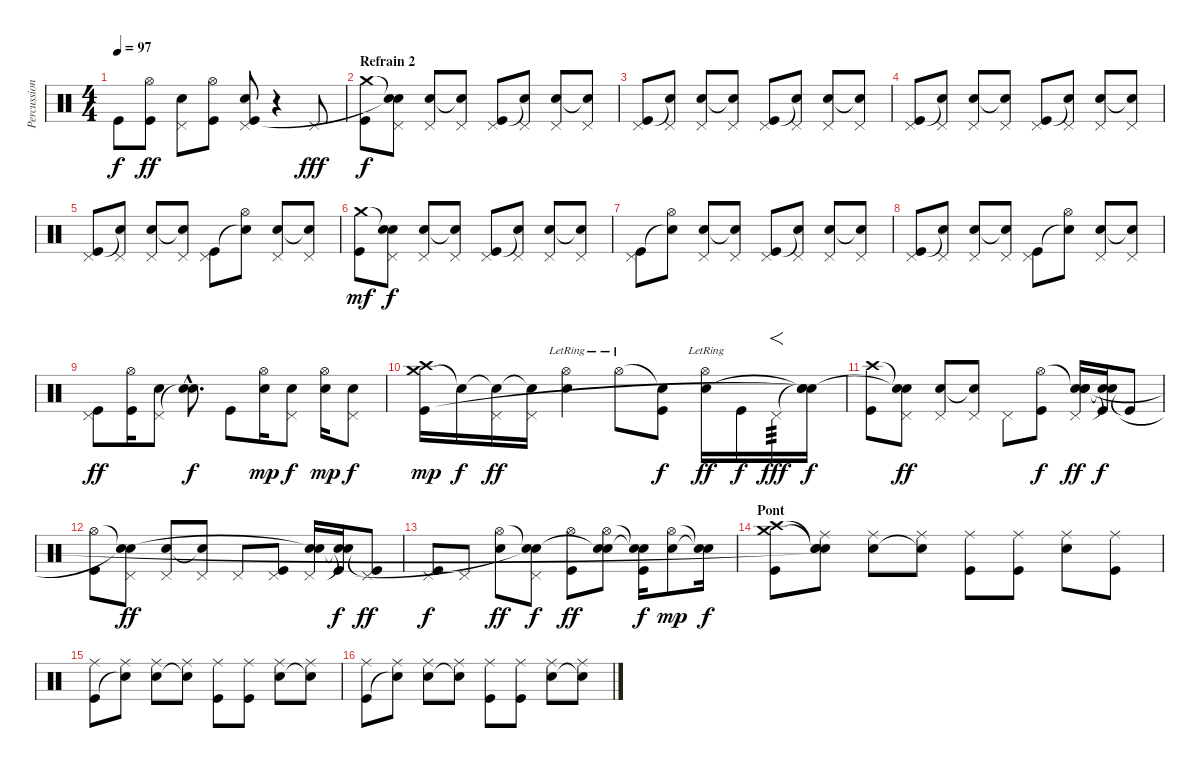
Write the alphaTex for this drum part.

\track ("Percussions" "Percussion") {instrument percussion}
\staff {score}
\articulation defaults
\ts (4 4)
\tempo 97
\clef neutral
\ks c "Kick (hit)".8{dy f}
("Hi-Hat (open)" "Kick (hit)").8{dy ff} ("Pedal Hi-Hat (hit)" "Snare (hit) 2").8 ("Hi-Hat (open)" "Kick (hit)").8 ("Pedal Hi-Hat (hit)" "Snare (hit) 2" "Kick (hit)").8 r.4 "Pedal Hi-Hat (hit)".8{dy fff} |
\section ("" "Refrain 2")
("Crash medium (hit)" "Kick (hit)").8{dy f} ("Snare (hit)"{t} "Pedal Hi-Hat (hit)" "Snare (hit)"{t}).8 ("Pedal Hi-Hat (hit)" "Snare (hit) 2").8 ("Pedal Hi-Hat (hit)" "Snare (hit)"{t}).8 ("Pedal Hi-Hat (hit)" "Kick (hit)").8 ("Pedal Hi-Hat (hit)" "Snare (hit)"{t}).8 ("Pedal Hi-Hat (hit)" "Snare (hit) 2").8 ("Pedal Hi-Hat (hit)" "Snare (hit)"{t}).8 |
("Pedal Hi-Hat (hit)" "Kick (hit)").8 ("Pedal Hi-Hat (hit)" "Snare (hit)"{t}).8 ("Pedal Hi-Hat (hit)" "Snare (hit) 2").8 ("Pedal Hi-Hat (hit)" "Snare (hit)"{t}).8 ("Pedal Hi-Hat (hit)" "Kick (hit)").8 ("Pedal Hi-Hat (hit)" "Snare (hit)"{t}).8 ("Pedal Hi-Hat (hit)" "Snare (hit) 2").8 ("Pedal Hi-Hat (hit)" "Snare (hit)"{t}).8 |
("Pedal Hi-Hat (hit)" "Kick (hit)").8 ("Pedal Hi-Hat (hit)" "Snare (hit)"{t}).8 ("Pedal Hi-Hat (hit)" "Snare (hit) 2").8 ("Pedal Hi-Hat (hit)" "Snare (hit)"{t}).8 ("Pedal Hi-Hat (hit)" "Kick (hit)").8 ("Pedal Hi-Hat (hit)" "Snare (hit)"{t}).8 ("Pedal Hi-Hat (hit)" "Snare (hit) 2").8 ("Pedal Hi-Hat (hit)" "Snare (hit)"{t}).8 |
("Pedal Hi-Hat (hit)" "Kick (hit)").8 ("Pedal Hi-Hat (hit)" "Snare (hit)"{t}).8 ("Pedal Hi-Hat (hit)" "Snare (hit) 2").8 ("Pedal Hi-Hat (hit)" "Snare (hit)"{t}).8 ("Pedal Hi-Hat (hit)" "Kick (hit)").8 ("Hi-Hat (open)" "Snare (hit)"{t}).8 ("Pedal Hi-Hat (hit)" "Snare (hit) 2").8 ("Pedal Hi-Hat (hit)" "Snare (hit)"{t}).8 |
("Crash medium (hit)" "Kick (hit)").8{dy mf} ("Snare (hit)"{t} "Pedal Hi-Hat (hit)" "Snare (hit)").8{dy f} ("Pedal Hi-Hat (hit)" "Snare (hit) 2").8 ("Pedal Hi-Hat (hit)" "Snare (hit)"{t}).8 ("Pedal Hi-Hat (hit)" "Kick (hit)").8 ("Pedal Hi-Hat (hit)" "Snare (hit)"{t}).8 ("Pedal Hi-Hat (hit)" "Snare (hit) 2").8 ("Pedal Hi-Hat (hit)" "Snare (hit)"{t}).8 |
("Pedal Hi-Hat (hit)" "Kick (hit)").8 ("Hi-Hat (open)" "Snare (hit)"{t}).8 ("Pedal Hi-Hat (hit)" "Snare (hit) 2").8 ("Pedal Hi-Hat (hit)" "Snare (hit)"{t}).8 ("Pedal Hi-Hat (hit)" "Kick (hit)").8 ("Pedal Hi-Hat (hit)" "Snare (hit)"{t}).8 ("Pedal Hi-Hat (hit)" "Snare (hit) 2").8 ("Pedal Hi-Hat (hit)" "Snare (hit)"{t}).8 |
("Pedal Hi-Hat (hit)" "Kick (hit)").8 ("Pedal Hi-Hat (hit)" "Snare (hit)"{t}).8 ("Pedal Hi-Hat (hit)" "Snare (hit) 2").8 ("Pedal Hi-Hat (hit)" "Snare (hit)"{t}).8 ("Pedal Hi-Hat (hit)" "Kick (hit)").8 ("Hi-Hat (open)" "Snare (hit)"{t}).8 ("Pedal Hi-Hat (hit)" "Snare (hit) 2").8 ("Pedal Hi-Hat (hit)" "Snare (hit)"{t}).8 |
("Pedal Hi-Hat (hit)" "Kick (hit)").8{dy ff} ("Hi-Hat (open)" "Kick (hit)").16 ("Pedal Hi-Hat (hit)" "Snare (hit) 2").8 ("Snare (hit)"{hac t} "Snare (hit) 2"{hac}).8{d dy f} "Kick (hit)".8 ("Hi-Hat (open)" "Snare (hit) 2").16{dy mp} ("Pedal Hi-Hat (hit)" "Snare (hit) 2").8{dy f} ("Hi-Hat (open)" "Snare (hit) 2").16{dy mp} ("Pedal Hi-Hat (hit)" "Snare (hit) 2").8{dy f} |
("Crash medium (hit)" "Crash high (hit)" "Kick (hit)").16{dy mp} "Snare (hit)"{t}.16{dy f} ("Snare (hit)"{t} "Pedal Hi-Hat (hit)").16{dy ff} ("Snare (hit)"{t} "Pedal Hi-Hat (hit)").16 ("Hi-Hat (open)"{lr} "Snare (hit) 2").4 "Hi-Hat (open)"{lr}.8 ("Snare (hit)"{t} "Kick (hit)").8{dy f} ("Hi-Hat (open)"{lr} "Snare (hit) 2").16{dy ff} "Kick (hit)".16{dy f} "Pedal Hi-Hat (hit)".16{f tp 3 dy fff} ("Snare (hit)"{t} "Snare (hit)"{t} "Snare (hit)"{t}).16{dy f} |
("Crash high (hit)" "Kick (hit)").8 ("Snare (hit)"{t} "Pedal Hi-Hat (hit)" "Snare (hit)"{t}).8{dy ff} ("Pedal Hi-Hat (hit)" "Snare (hit) 2").8 ("Pedal Hi-Hat (hit)" "Snare (hit)"{t}).8 "Pedal Hi-Hat (hit)".8 ("Hi-Hat (open)" "Kick (hit)").8{dy f} ("Snare (hit)"{t} "Pedal Hi-Hat (hit)" "Snare (hit) 2" "Snare (hit)").16{dy ff} ("Snare (hit)"{t} "Snare (hit)"{t} "Kick (hit)").16{dy f} "Kick (hit)"{t}.8 |
("Hi-Hat (open)" "Kick (hit)").8 ("Snare (hit)"{t} "Pedal Hi-Hat (hit)" "Snare (hit)"{t}).8{dy ff} ("Pedal Hi-Hat (hit)" "Snare (hit) 2").8 ("Pedal Hi-Hat (hit)" "Snare (hit)"{t}).8 "Pedal Hi-Hat (hit)".8 ("Pedal Hi-Hat (hit)" "Kick (hit)").8 ("Pedal Hi-Hat (hit)" "Snare (hit) 2" "Snare (hit)"{t}).16 ("Snare (hit)"{t} "Snare (hit)"{t} "Kick (hit)").16{dy f} ("Pedal Hi-Hat (hit)" "Kick (hit)"{t}).8{dy ff} |
("Pedal Hi-Hat (hit)" "Kick (hit)").8{dy f} "Pedal Hi-Hat (hit)".8 ("Hi-Hat (open)" "Snare (hit) 2").8{dy ff} ("Snare (hit)"{t} "Pedal Hi-Hat (hit)" "Snare (hit)"{t}).8{dy f} ("Hi-Hat (open)" "Kick (hit)").8{dy ff} ("Hi-Hat (open)" "Snare (hit) 2" "Snare (hit)"{t}).8 ("Snare (hit)"{t} "Snare (hit) 2"{t} "Kick (hit)").16{dy f} ("Hi-Hat (open)" "Snare (hit) 2").8{dy mp} ("Snare (hit)"{t} "Snare (hit)"{t}).16{dy f} |
\section ("" "Pont")
("Crash medium (hit)" "Crash high (hit)" "Kick (hit)").8 ("Snare (hit)"{t} "Snare (hit)"{t} "Ride (middle)" "Snare (hit)"{t}).8 ("Ride (middle)" "Snare (hit) 2").8 ("Ride (middle)" "Snare (hit)"{t}).8 ("Ride (middle)" "Kick (hit)").8 ("Ride (middle)" "Kick (hit)").8 ("Ride (middle)" "Snare (hit) 2").8 ("Ride (middle)" "Kick (hit)").8 |
("Ride (middle)" "Kick (hit)").8 ("Ride (middle)" "Snare (hit)"{t}).8 ("Ride (middle)" "Snare (hit) 2").8 ("Ride (middle)" "Snare (hit)"{t}).8 ("Ride (middle)" "Kick (hit)").8 ("Ride (middle)" "Kick (hit)").8 ("Ride (middle)" "Snare (hit) 2").8 ("Ride (middle)" "Snare (hit)"{t}).8 |
("Ride (middle)" "Kick (hit)").8 ("Ride (middle)" "Snare (hit)"{t}).8 ("Ride (middle)" "Snare (hit) 2").8 ("Ride (middle)" "Snare (hit)"{t}).8 ("Ride (middle)" "Kick (hit)").8 ("Ride (middle)" "Kick (hit)").8 ("Ride (middle)" "Snare (hit) 2").8 ("Ride (middle)" "Snare (hit)"{t}).8
